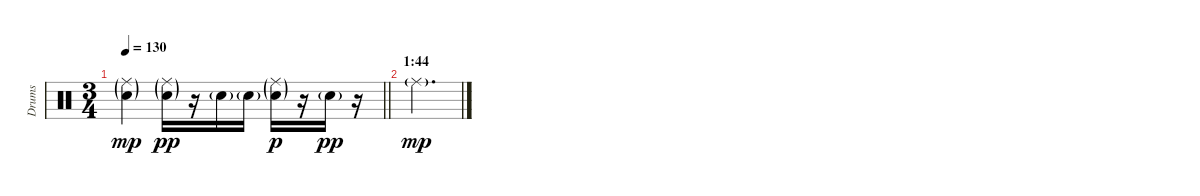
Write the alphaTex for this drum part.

\track ("Drums" "Drums") {instrument percussion}
\staff {score}
\articulation defaults
\ts (3 4)
\tempo 130
\clef neutral
\barLineRight lightlight
\ks c
("Ride (middle)"{g} "Electric Snare (hit)"{g}).4{dy mp} ("Ride (middle)"{g} "Electric Snare (hit)"{g}).16{dy pp} r.16 "Electric Snare (hit)"{g}.16 "Electric Snare (hit)"{g}.16 ("Ride (middle)"{g} "Electric Snare (hit)"{g}).16{dy p} r.16 "Electric Snare (hit)"{g}.16{dy pp} r.16 |
\section ("" "1:44")
"Ride (middle)"{g}.2{d dy mp}
